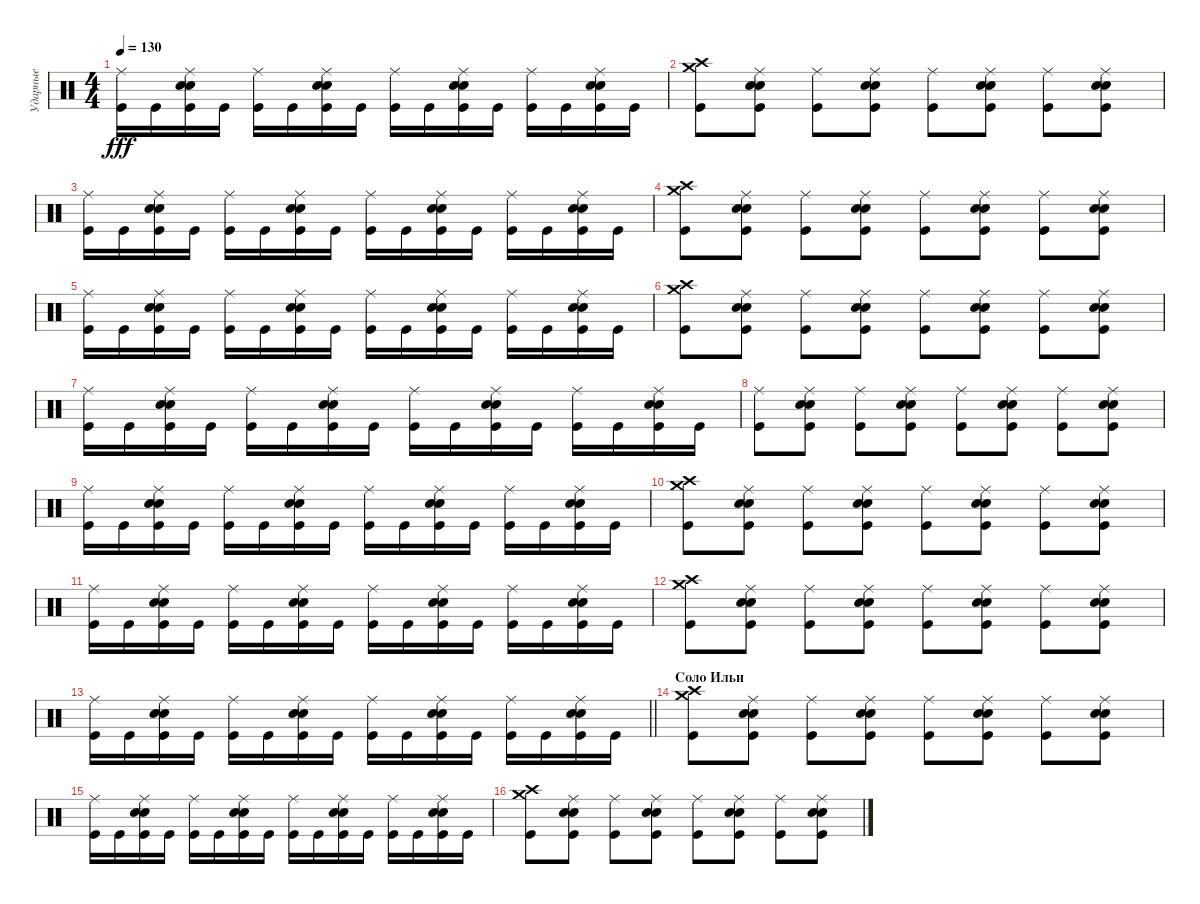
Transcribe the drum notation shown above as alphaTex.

\track ("Ударные" "Ударные") {instrument percussion}
\staff {score}
\articulation defaults
\ts (4 4)
\tempo 130
\clef neutral
\ks c
("Kick (hit)" "Ride (middle)").16{dy fff} "Kick (hit)".16 ("Kick (hit)" "Snare (hit) 2" "Snare (hit) 2" "Ride (middle)").16 "Kick (hit)".16 ("Kick (hit)" "Ride (middle)").16 "Kick (hit)".16 ("Kick (hit)" "Snare (hit) 2" "Snare (hit) 2" "Ride (middle)").16 "Kick (hit)".16 ("Kick (hit)" "Ride (middle)").16 "Kick (hit)".16 ("Kick (hit)" "Snare (hit) 2" "Snare (hit) 2" "Ride (middle)").16 "Kick (hit)".16 ("Kick (hit)" "Ride (middle)").16 "Kick (hit)".16 ("Kick (hit)" "Snare (hit) 2" "Snare (hit) 2" "Ride (middle)").16 "Kick (hit)".16 |
("Kick (hit)" "Crash medium (hit)" "Crash high (hit)").8 ("Kick (hit)" "Snare (hit) 2" "Snare (hit) 2" "Ride (middle)").8 ("Kick (hit)" "Ride (middle)").8 ("Kick (hit)" "Snare (hit) 2" "Snare (hit) 2" "Ride (middle)").8 ("Kick (hit)" "Ride (middle)").8 ("Kick (hit)" "Snare (hit) 2" "Snare (hit) 2" "Ride (middle)").8 ("Kick (hit)" "Ride (middle)").8 ("Kick (hit)" "Snare (hit) 2" "Snare (hit) 2" "Ride (middle)").8 |
("Kick (hit)" "Ride (middle)").16 "Kick (hit)".16 ("Kick (hit)" "Snare (hit) 2" "Snare (hit) 2" "Ride (middle)").16 "Kick (hit)".16 ("Kick (hit)" "Ride (middle)").16 "Kick (hit)".16 ("Kick (hit)" "Snare (hit) 2" "Snare (hit) 2" "Ride (middle)").16 "Kick (hit)".16 ("Kick (hit)" "Ride (middle)").16 "Kick (hit)".16 ("Kick (hit)" "Snare (hit) 2" "Snare (hit) 2" "Ride (middle)").16 "Kick (hit)".16 ("Kick (hit)" "Ride (middle)").16 "Kick (hit)".16 ("Kick (hit)" "Snare (hit) 2" "Snare (hit) 2" "Ride (middle)").16 "Kick (hit)".16 |
("Kick (hit)" "Crash medium (hit)" "Crash high (hit)").8 ("Kick (hit)" "Snare (hit) 2" "Snare (hit) 2" "Ride (middle)").8 ("Kick (hit)" "Ride (middle)").8 ("Kick (hit)" "Snare (hit) 2" "Snare (hit) 2" "Ride (middle)").8 ("Kick (hit)" "Ride (middle)").8 ("Kick (hit)" "Snare (hit) 2" "Snare (hit) 2" "Ride (middle)").8 ("Kick (hit)" "Ride (middle)").8 ("Kick (hit)" "Snare (hit) 2" "Snare (hit) 2" "Ride (middle)").8 |
("Kick (hit)" "Ride (middle)").16 "Kick (hit)".16 ("Kick (hit)" "Snare (hit) 2" "Snare (hit) 2" "Ride (middle)").16 "Kick (hit)".16 ("Kick (hit)" "Ride (middle)").16 "Kick (hit)".16 ("Kick (hit)" "Snare (hit) 2" "Snare (hit) 2" "Ride (middle)").16 "Kick (hit)".16 ("Kick (hit)" "Ride (middle)").16 "Kick (hit)".16 ("Kick (hit)" "Snare (hit) 2" "Snare (hit) 2" "Ride (middle)").16 "Kick (hit)".16 ("Kick (hit)" "Ride (middle)").16 "Kick (hit)".16 ("Kick (hit)" "Snare (hit) 2" "Snare (hit) 2" "Ride (middle)").16 "Kick (hit)".16 |
("Kick (hit)" "Crash medium (hit)" "Crash high (hit)").8 ("Kick (hit)" "Snare (hit) 2" "Snare (hit) 2" "Ride (middle)").8 ("Kick (hit)" "Ride (middle)").8 ("Kick (hit)" "Snare (hit) 2" "Snare (hit) 2" "Ride (middle)").8 ("Kick (hit)" "Ride (middle)").8 ("Kick (hit)" "Snare (hit) 2" "Snare (hit) 2" "Ride (middle)").8 ("Kick (hit)" "Ride (middle)").8 ("Kick (hit)" "Snare (hit) 2" "Snare (hit) 2" "Ride (middle)").8 |
("Kick (hit)" "Ride (middle)").16 "Kick (hit)".16 ("Kick (hit)" "Snare (hit) 2" "Snare (hit) 2" "Ride (middle)").16 "Kick (hit)".16 ("Kick (hit)" "Ride (middle)").16 "Kick (hit)".16 ("Kick (hit)" "Snare (hit) 2" "Snare (hit) 2" "Ride (middle)").16 "Kick (hit)".16 ("Kick (hit)" "Ride (middle)").16 "Kick (hit)".16 ("Kick (hit)" "Snare (hit) 2" "Snare (hit) 2" "Ride (middle)").16 "Kick (hit)".16 ("Kick (hit)" "Ride (middle)").16 "Kick (hit)".16 ("Kick (hit)" "Snare (hit) 2" "Snare (hit) 2" "Ride (middle)").16 "Kick (hit)".16 |
("Kick (hit)" "Ride (middle)").8 ("Kick (hit)" "Snare (hit) 2" "Snare (hit) 2" "Ride (middle)").8 ("Kick (hit)" "Ride (middle)").8 ("Kick (hit)" "Snare (hit) 2" "Snare (hit) 2" "Ride (middle)").8 ("Kick (hit)" "Ride (middle)").8 ("Kick (hit)" "Snare (hit) 2" "Snare (hit) 2" "Ride (middle)").8 ("Kick (hit)" "Ride (middle)").8 ("Kick (hit)" "Snare (hit) 2" "Snare (hit) 2" "Ride (middle)").8 |
("Kick (hit)" "Ride (middle)").16 "Kick (hit)".16 ("Kick (hit)" "Snare (hit) 2" "Snare (hit) 2" "Ride (middle)").16 "Kick (hit)".16 ("Kick (hit)" "Ride (middle)").16 "Kick (hit)".16 ("Kick (hit)" "Snare (hit) 2" "Snare (hit) 2" "Ride (middle)").16 "Kick (hit)".16 ("Kick (hit)" "Ride (middle)").16 "Kick (hit)".16 ("Kick (hit)" "Snare (hit) 2" "Snare (hit) 2" "Ride (middle)").16 "Kick (hit)".16 ("Kick (hit)" "Ride (middle)").16 "Kick (hit)".16 ("Kick (hit)" "Snare (hit) 2" "Snare (hit) 2" "Ride (middle)").16 "Kick (hit)".16 |
("Kick (hit)" "Crash medium (hit)" "Crash high (hit)").8 ("Kick (hit)" "Snare (hit) 2" "Snare (hit) 2" "Ride (middle)").8 ("Kick (hit)" "Ride (middle)").8 ("Kick (hit)" "Snare (hit) 2" "Snare (hit) 2" "Ride (middle)").8 ("Kick (hit)" "Ride (middle)").8 ("Kick (hit)" "Snare (hit) 2" "Snare (hit) 2" "Ride (middle)").8 ("Kick (hit)" "Ride (middle)").8 ("Kick (hit)" "Snare (hit) 2" "Snare (hit) 2" "Ride (middle)").8 |
("Kick (hit)" "Ride (middle)").16 "Kick (hit)".16 ("Kick (hit)" "Snare (hit) 2" "Snare (hit) 2" "Ride (middle)").16 "Kick (hit)".16 ("Kick (hit)" "Ride (middle)").16 "Kick (hit)".16 ("Kick (hit)" "Snare (hit) 2" "Snare (hit) 2" "Ride (middle)").16 "Kick (hit)".16 ("Kick (hit)" "Ride (middle)").16 "Kick (hit)".16 ("Kick (hit)" "Snare (hit) 2" "Snare (hit) 2" "Ride (middle)").16 "Kick (hit)".16 ("Kick (hit)" "Ride (middle)").16 "Kick (hit)".16 ("Kick (hit)" "Snare (hit) 2" "Snare (hit) 2" "Ride (middle)").16 "Kick (hit)".16 |
("Kick (hit)" "Crash medium (hit)" "Crash high (hit)").8 ("Kick (hit)" "Snare (hit) 2" "Snare (hit) 2" "Ride (middle)").8 ("Kick (hit)" "Ride (middle)").8 ("Kick (hit)" "Snare (hit) 2" "Snare (hit) 2" "Ride (middle)").8 ("Kick (hit)" "Ride (middle)").8 ("Kick (hit)" "Snare (hit) 2" "Snare (hit) 2" "Ride (middle)").8 ("Kick (hit)" "Ride (middle)").8 ("Kick (hit)" "Snare (hit) 2" "Snare (hit) 2" "Ride (middle)").8 |
\barLineRight lightlight
("Kick (hit)" "Ride (middle)").16 "Kick (hit)".16 ("Kick (hit)" "Snare (hit) 2" "Snare (hit) 2" "Ride (middle)").16 "Kick (hit)".16 ("Kick (hit)" "Ride (middle)").16 "Kick (hit)".16 ("Kick (hit)" "Snare (hit) 2" "Snare (hit) 2" "Ride (middle)").16 "Kick (hit)".16 ("Kick (hit)" "Ride (middle)").16 "Kick (hit)".16 ("Kick (hit)" "Snare (hit) 2" "Snare (hit) 2" "Ride (middle)").16 "Kick (hit)".16 ("Kick (hit)" "Ride (middle)").16 "Kick (hit)".16 ("Kick (hit)" "Snare (hit) 2" "Snare (hit) 2" "Ride (middle)").16 "Kick (hit)".16 |
\section ("" "Соло Ильи")
("Kick (hit)" "Crash medium (hit)" "Crash high (hit)").8 ("Kick (hit)" "Snare (hit) 2" "Snare (hit) 2" "Ride (middle)").8 ("Kick (hit)" "Ride (middle)").8 ("Kick (hit)" "Snare (hit) 2" "Snare (hit) 2" "Ride (middle)").8 ("Kick (hit)" "Ride (middle)").8 ("Kick (hit)" "Snare (hit) 2" "Snare (hit) 2" "Ride (middle)").8 ("Kick (hit)" "Ride (middle)").8 ("Kick (hit)" "Snare (hit) 2" "Snare (hit) 2" "Ride (middle)").8 |
("Kick (hit)" "Ride (middle)").16 "Kick (hit)".16 ("Kick (hit)" "Snare (hit) 2" "Snare (hit) 2" "Ride (middle)").16 "Kick (hit)".16 ("Kick (hit)" "Ride (middle)").16 "Kick (hit)".16 ("Kick (hit)" "Snare (hit) 2" "Snare (hit) 2" "Ride (middle)").16 "Kick (hit)".16 ("Kick (hit)" "Ride (middle)").16 "Kick (hit)".16 ("Kick (hit)" "Snare (hit) 2" "Snare (hit) 2" "Ride (middle)").16 "Kick (hit)".16 ("Kick (hit)" "Ride (middle)").16 "Kick (hit)".16 ("Kick (hit)" "Snare (hit) 2" "Snare (hit) 2" "Ride (middle)").16 "Kick (hit)".16 |
("Kick (hit)" "Crash medium (hit)" "Crash high (hit)").8 ("Kick (hit)" "Snare (hit) 2" "Snare (hit) 2" "Ride (middle)").8 ("Kick (hit)" "Ride (middle)").8 ("Kick (hit)" "Snare (hit) 2" "Snare (hit) 2" "Ride (middle)").8 ("Kick (hit)" "Ride (middle)").8 ("Kick (hit)" "Snare (hit) 2" "Snare (hit) 2" "Ride (middle)").8 ("Kick (hit)" "Ride (middle)").8 ("Kick (hit)" "Snare (hit) 2" "Snare (hit) 2" "Ride (middle)").8
